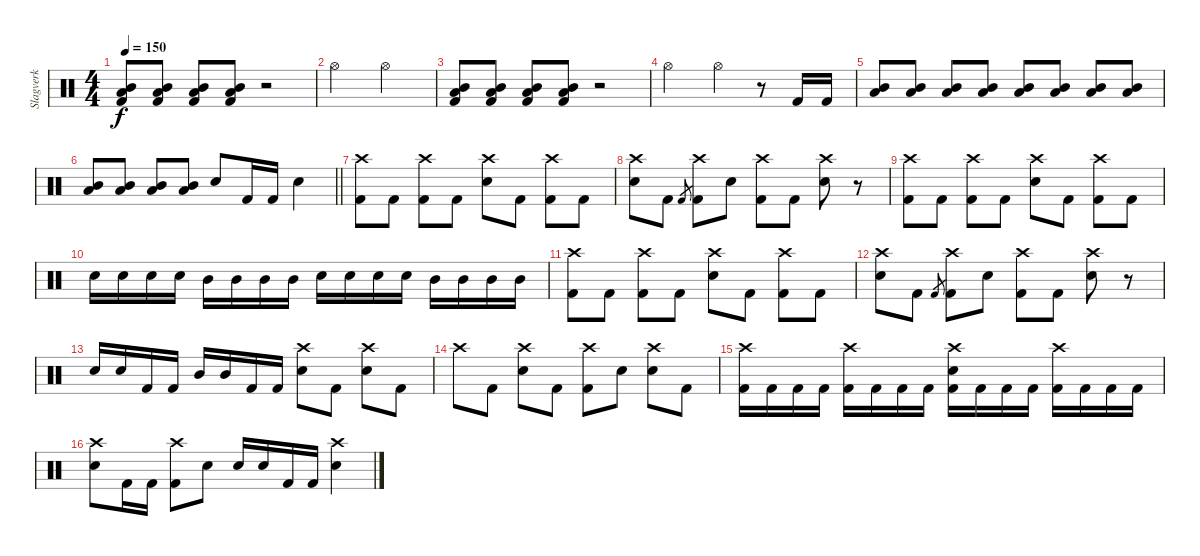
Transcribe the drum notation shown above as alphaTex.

\track ("Slagverk" "Slagverk") {instrument percussion}
\staff {score}
\articulation defaults
\ts (4 4)
\tempo 150
\clef neutral
\ks c
("Mid Tom (hit)" "Low Tom (hit)" "Kick (hit) 2").8{dy f} ("Mid Tom (hit)" "Low Tom (hit)" "Kick (hit) 2").8 ("Mid Tom (hit)" "Low Tom (hit)" "Kick (hit) 2").8 ("Mid Tom (hit)" "Low Tom (hit)" "Kick (hit) 2").8 r.2 |
"Hi-Hat (open)".2 "Hi-Hat (open)".2 |
("Mid Tom (hit)" "Low Tom (hit)" "Kick (hit) 2").8 ("Mid Tom (hit)" "Low Tom (hit)" "Kick (hit) 2").8 ("Mid Tom (hit)" "Low Tom (hit)" "Kick (hit) 2").8 ("Mid Tom (hit)" "Low Tom (hit)" "Kick (hit) 2").8 r.2 |
"Hi-Hat (open)".2 "Hi-Hat (open)".4 r.8 "Kick (hit) 2".16 "Kick (hit) 2".16 |
("Mid Tom (hit)" "Low Tom (hit)").8 ("Mid Tom (hit)" "Low Tom (hit)").8 ("Mid Tom (hit)" "Low Tom (hit)").8 ("Mid Tom (hit)" "Low Tom (hit)").8 ("Mid Tom (hit)" "Low Tom (hit)").8 ("Mid Tom (hit)" "Low Tom (hit)").8 ("Mid Tom (hit)" "Low Tom (hit)").8 ("Mid Tom (hit)" "Low Tom (hit)").8 |
\barLineRight lightlight
("Mid Tom (hit)" "Low Tom (hit)").8 ("Mid Tom (hit)" "Low Tom (hit)").8 ("Mid Tom (hit)" "Low Tom (hit)").8 ("Mid Tom (hit)" "Low Tom (hit)").8 "Electric Snare (hit)".8 "Kick (hit) 2".16 "Kick (hit) 2".16 "Electric Snare (hit)".4 |
\section ("" "")
("Crash high (hit)" "Kick (hit) 2").8 "Kick (hit) 2".8 ("Crash high (hit)" "Kick (hit) 2").8 "Kick (hit) 2".8 ("Crash high (hit)" "Electric Snare (hit)").8 "Kick (hit) 2".8 ("Crash high (hit)" "Kick (hit) 2").8 "Kick (hit) 2".8 |
("Crash high (hit)" "Electric Snare (hit)").8 "Kick (hit) 2".8 "Kick (hit) 2".8{gr} ("Crash high (hit)" "Kick (hit) 2").8 "Electric Snare (hit)".8 ("Crash high (hit)" "Kick (hit) 2").8 "Kick (hit) 2".8 ("Crash high (hit)" "Electric Snare (hit)").8 r.8 |
("Crash high (hit)" "Kick (hit) 2").8 "Kick (hit) 2".8 ("Crash high (hit)" "Kick (hit) 2").8 "Kick (hit) 2".8 ("Crash high (hit)" "Electric Snare (hit)").8 "Kick (hit) 2".8 ("Crash high (hit)" "Kick (hit) 2").8 "Kick (hit) 2".8 |
"Electric Snare (hit)".16 "Electric Snare (hit)".16 "Electric Snare (hit)".16 "Electric Snare (hit)".16 "Mid Tom (hit)".16 "Mid Tom (hit)".16 "Mid Tom (hit)".16 "Mid Tom (hit)".16 "Electric Snare (hit)".16 "Electric Snare (hit)".16 "Electric Snare (hit)".16 "Electric Snare (hit)".16 "Mid Tom (hit)".16 "Mid Tom (hit)".16 "Mid Tom (hit)".16 "Mid Tom (hit)".16 |
("Crash high (hit)" "Kick (hit) 2").8 "Kick (hit) 2".8 ("Crash high (hit)" "Kick (hit) 2").8 "Kick (hit) 2".8 ("Crash high (hit)" "Electric Snare (hit)").8 "Kick (hit) 2".8 ("Crash high (hit)" "Kick (hit) 2").8 "Kick (hit) 2".8 |
("Crash high (hit)" "Electric Snare (hit)").8 "Kick (hit) 2".8 "Kick (hit) 2".8{gr} ("Crash high (hit)" "Kick (hit) 2").8 "Electric Snare (hit)".8 ("Crash high (hit)" "Kick (hit) 2").8 "Kick (hit) 2".8 ("Crash high (hit)" "Electric Snare (hit)").8 r.8 |
"Electric Snare (hit)".16 "Electric Snare (hit)".16 "Kick (hit) 2".16 "Kick (hit) 2".16 "Mid Tom (hit)".16 "Mid Tom (hit)".16 "Kick (hit) 2".16 "Kick (hit) 2".16 ("Crash high (hit)" "Electric Snare (hit)").8 "Kick (hit) 2".8 ("Crash high (hit)" "Electric Snare (hit)").8 "Kick (hit) 2".8 |
"Crash high (hit)".8 "Kick (hit) 2".8 ("Crash high (hit)" "Electric Snare (hit)").8 "Kick (hit) 2".8 ("Crash high (hit)" "Kick (hit) 2").8 "Electric Snare (hit)".8 ("Crash high (hit)" "Electric Snare (hit)").8 "Kick (hit) 2".8 |
("Crash high (hit)" "Kick (hit) 2").16 "Kick (hit) 2".16 "Kick (hit) 2".16 "Kick (hit) 2".16 ("Crash high (hit)" "Kick (hit) 2").16 "Kick (hit) 2".16 "Kick (hit) 2".16 "Kick (hit) 2".16 ("Crash high (hit)" "Electric Snare (hit)" "Kick (hit) 2").16 "Kick (hit) 2".16 "Kick (hit) 2".16 "Kick (hit) 2".16 ("Crash high (hit)" "Kick (hit) 2").16 "Kick (hit) 2".16 "Kick (hit) 2".16 "Kick (hit) 2".16 |
("Crash high (hit)" "Electric Snare (hit)").8 "Kick (hit) 2".16 "Kick (hit) 2".16 ("Crash high (hit)" "Kick (hit) 2").8 "Electric Snare (hit)".8 "Electric Snare (hit)".16 "Electric Snare (hit)".16 "Kick (hit) 2".16 "Kick (hit) 2".16 ("Crash high (hit)" "Electric Snare (hit)").4
